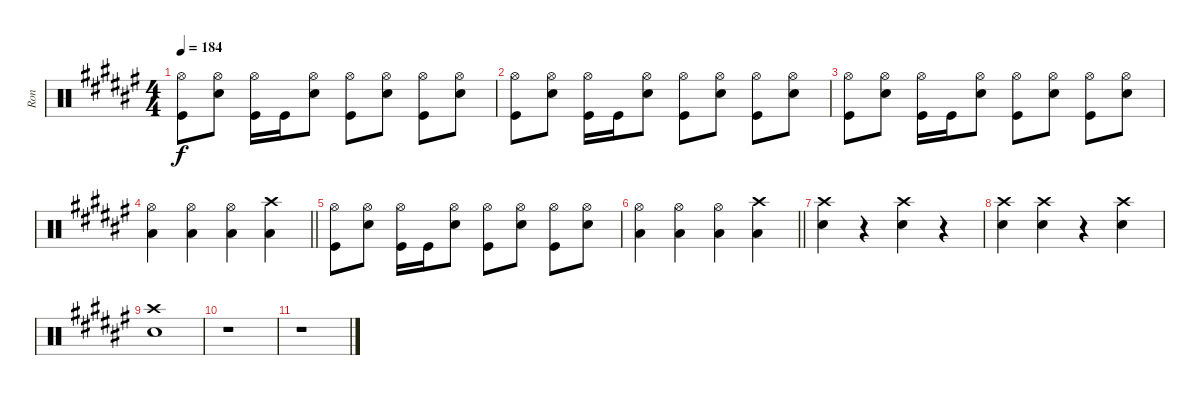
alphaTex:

\track ("Ron" "Ron") {instrument percussion}
\staff {score}
\articulation defaults
\ts (4 4)
\tempo 184
\clef neutral
\ks f#
("Kick (hit)" "Hi-Hat (open)").8{dy f} ("Electric Snare (hit)" "Hi-Hat (open)").8 ("Kick (hit)" "Hi-Hat (open)").16 "Kick (hit)".16 ("Electric Snare (hit)" "Hi-Hat (open)").8 ("Kick (hit)" "Hi-Hat (open)").8 ("Electric Snare (hit)" "Hi-Hat (open)").8 ("Kick (hit)" "Hi-Hat (open)").8 ("Electric Snare (hit)" "Hi-Hat (open)").8 |
("Kick (hit)" "Hi-Hat (open)").8 ("Electric Snare (hit)" "Hi-Hat (open)").8 ("Kick (hit)" "Hi-Hat (open)").16 "Kick (hit)".16 ("Electric Snare (hit)" "Hi-Hat (open)").8 ("Kick (hit)" "Hi-Hat (open)").8 ("Electric Snare (hit)" "Hi-Hat (open)").8 ("Kick (hit)" "Hi-Hat (open)").8 ("Electric Snare (hit)" "Hi-Hat (open)").8 |
("Kick (hit)" "Hi-Hat (open)").8 ("Electric Snare (hit)" "Hi-Hat (open)").8 ("Kick (hit)" "Hi-Hat (open)").16 "Kick (hit)".16 ("Electric Snare (hit)" "Hi-Hat (open)").8 ("Kick (hit)" "Hi-Hat (open)").8 ("Electric Snare (hit)" "Hi-Hat (open)").8 ("Kick (hit)" "Hi-Hat (open)").8 ("Electric Snare (hit)" "Hi-Hat (open)").8 |
\barLineRight lightlight
("Hi-Hat (open)" "Low Tom (hit)").4 ("Hi-Hat (open)" "Low Tom (hit)").4 ("Hi-Hat (open)" "Low Tom (hit)").4 ("Crash high (hit)" "Low Tom (hit)").4 |
("Kick (hit)" "Hi-Hat (open)").8 ("Electric Snare (hit)" "Hi-Hat (open)").8 ("Kick (hit)" "Hi-Hat (open)").16 "Kick (hit)".16 ("Electric Snare (hit)" "Hi-Hat (open)").8 ("Kick (hit)" "Hi-Hat (open)").8 ("Electric Snare (hit)" "Hi-Hat (open)").8 ("Kick (hit)" "Hi-Hat (open)").8 ("Electric Snare (hit)" "Hi-Hat (open)").8 |
\barLineRight lightlight
("Hi-Hat (open)" "Low Tom (hit)").4 ("Hi-Hat (open)" "Low Tom (hit)").4 ("Hi-Hat (open)" "Low Tom (hit)").4 ("Crash high (hit)" "Low Tom (hit)").4 |
("Electric Snare (hit)" "Crash high (hit)").4 r.4 ("Electric Snare (hit)" "Crash high (hit)").4 r.4 |
("Electric Snare (hit)" "Crash high (hit)").4 ("Electric Snare (hit)" "Crash high (hit)").4 r.4 ("Electric Snare (hit)" "Crash high (hit)").4 |
("Electric Snare (hit)" "Crash high (hit)").1 |
r.1 |
r.1
